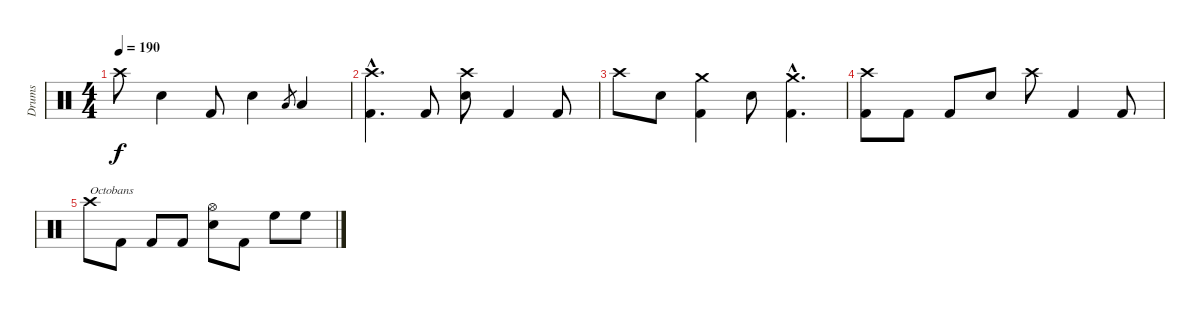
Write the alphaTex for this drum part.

\track ("Drums" "Drums") {instrument percussion}
\staff {score}
\articulation defaults
\ts (4 4)
\tempo 190
\clef neutral
\ks c "Crash high (hit)".8{dy f} "Electric Snare (hit)".4 "Kick (hit) 2".8 "Electric Snare (hit)".4 "Low Floor Tom (hit)".8{gr} "Low Floor Tom (hit)".4
|
("Crash high (hit)"{hac} "Kick (hit) 2"{hac}).4{d} "Kick (hit) 2".8 ("Crash high (hit)" "Electric Snare (hit)").8 "Kick (hit) 2".4 "Kick (hit) 2".8 |
"Crash high (hit)".8 "Electric Snare (hit)".8 ("Crash medium (hit)" "Kick (hit) 2").4 "Electric Snare (hit)".8 ("Crash medium (hit)"{hac} "Kick (hit) 2"{hac}).4{d} |
("Crash high (hit)" "Kick (hit) 2").8 "Kick (hit) 2".8 "Kick (hit) 2".8 "Electric Snare (hit)".8 "Crash high (hit)".8 "Kick (hit) 2".4 "Kick (hit) 2".8 |
"Crash high (hit)".8{txt "Octobans"} "Kick (hit) 2".8 "Kick (hit) 2".8 "Kick (hit) 2".8 ("Hi-Hat (open)" "Electric Snare (hit)").8 "Kick (hit) 2".8 "High Floor Tom (hit)".8 "High Floor Tom (hit)".8
